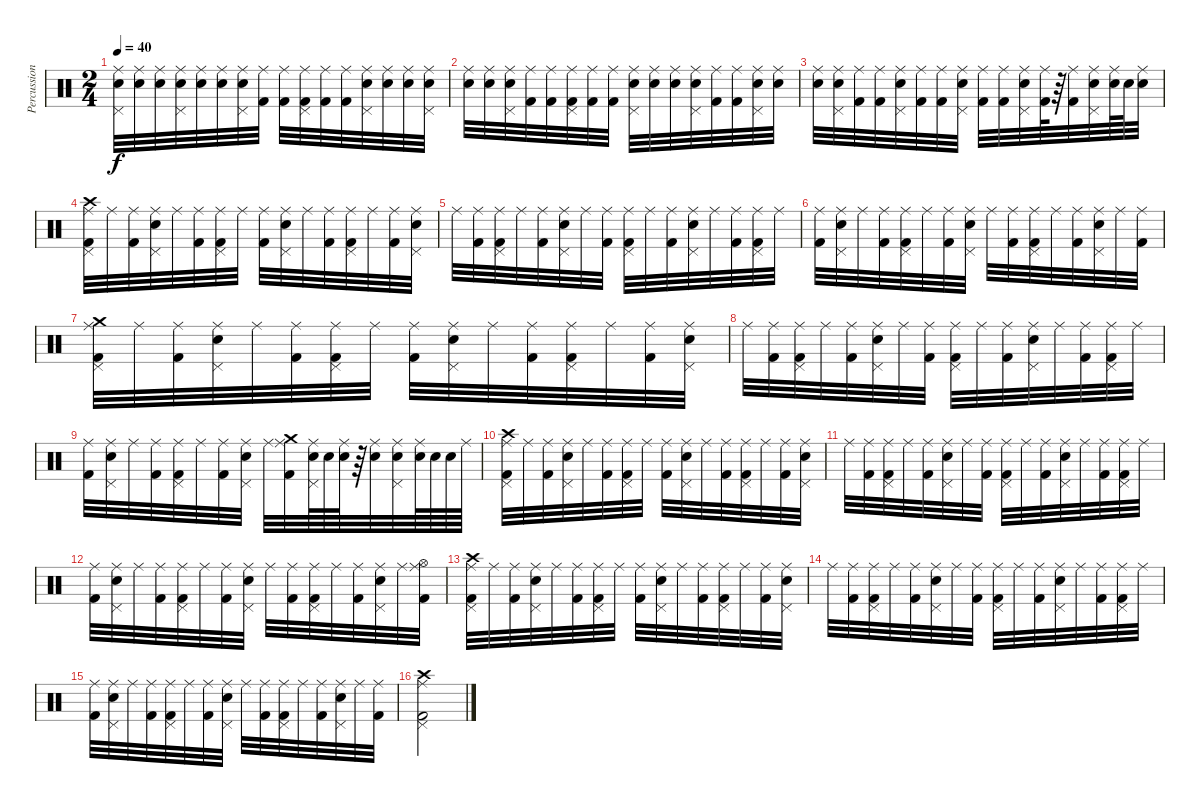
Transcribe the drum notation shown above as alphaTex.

\track ("Percussions" "Percussion") {instrument percussion}
\staff {score}
\articulation defaults
\ts (2 4)
\tempo 40
\clef neutral
\ks c
("Ride (middle)" "Pedal Hi-Hat (hit)" "Electric Snare (hit)").32{dy f} ("Ride (middle)" "Electric Snare (hit)").32 ("Ride (middle)" "Electric Snare (hit)").32 ("Ride (middle)" "Pedal Hi-Hat (hit)" "Electric Snare (hit)").32 ("Ride (middle)" "Electric Snare (hit)").32 ("Ride (middle)" "Electric Snare (hit)").32 ("Ride (middle)" "Pedal Hi-Hat (hit)" "Electric Snare (hit)").32 ("Ride (middle)" "Kick (hit) 2").32 ("Ride (middle)" "Kick (hit) 2").32 ("Ride (middle)" "Pedal Hi-Hat (hit)" "Kick (hit) 2").32 ("Ride (middle)" "Kick (hit) 2").32 ("Ride (middle)" "Kick (hit) 2").32 ("Ride (middle)" "Pedal Hi-Hat (hit)" "Electric Snare (hit)").32 ("Ride (middle)" "Electric Snare (hit)").32 ("Ride (middle)" "Electric Snare (hit)").32 ("Ride (middle)" "Pedal Hi-Hat (hit)" "Electric Snare (hit)").32 |
("Ride (middle)" "Electric Snare (hit)").32 ("Ride (middle)" "Electric Snare (hit)").32 ("Ride (middle)" "Pedal Hi-Hat (hit)" "Electric Snare (hit)").32 ("Ride (middle)" "Kick (hit) 2").32 ("Ride (middle)" "Kick (hit) 2").32 ("Ride (middle)" "Pedal Hi-Hat (hit)" "Kick (hit) 2").32 ("Ride (middle)" "Kick (hit) 2").32 ("Ride (middle)" "Kick (hit) 2").32 ("Ride (middle)" "Pedal Hi-Hat (hit)" "Electric Snare (hit)").32 ("Ride (middle)" "Electric Snare (hit)").32 ("Ride (middle)" "Electric Snare (hit)").32 ("Ride (middle)" "Pedal Hi-Hat (hit)" "Electric Snare (hit)").32 ("Ride (middle)" "Kick (hit) 2").32 ("Ride (middle)" "Kick (hit) 2").32 ("Ride (middle)" "Pedal Hi-Hat (hit)" "Electric Snare (hit)").32 ("Ride (middle)" "Electric Snare (hit)").32 |
("Ride (middle)" "Electric Snare (hit)").32 ("Ride (middle)" "Pedal Hi-Hat (hit)" "Electric Snare (hit)").32 ("Ride (middle)" "Kick (hit) 2").32 ("Ride (middle)" "Kick (hit) 2").32 ("Ride (middle)" "Pedal Hi-Hat (hit)" "Electric Snare (hit)").32 ("Ride (middle)" "Kick (hit) 2").32 ("Ride (middle)" "Kick (hit) 2").32 ("Ride (middle)" "Pedal Hi-Hat (hit)" "Electric Snare (hit)").32 ("Ride (middle)" "Kick (hit) 2").32 ("Ride (middle)" "Kick (hit) 2").32 ("Ride (middle)" "Pedal Hi-Hat (hit)" "Electric Snare (hit)").32 ("Ride (middle)" "Kick (hit) 2").64 r.64 ("Ride (middle)" "Kick (hit) 2").32 ("Ride (middle)" "Pedal Hi-Hat (hit)" "Electric Snare (hit)").32 ("Ride (middle)" "Electric Snare (hit)").64 "Electric Snare (hit)".64 ("Ride (middle)" "Electric Snare (hit)").32 |
("Ride (middle)" "Crash high (hit)" "Pedal Hi-Hat (hit)" "Kick (hit) 2").32 "Ride (middle)".32 ("Ride (middle)" "Kick (hit) 2").32 ("Ride (middle)" "Pedal Hi-Hat (hit)" "Electric Snare (hit)").32 "Ride (middle)".32 ("Ride (middle)" "Kick (hit) 2").32 ("Ride (middle)" "Pedal Hi-Hat (hit)" "Kick (hit) 2").32 "Ride (middle)".32 ("Ride (middle)" "Kick (hit) 2").32 ("Ride (middle)" "Pedal Hi-Hat (hit)" "Electric Snare (hit)").32 "Ride (middle)".32 ("Ride (middle)" "Kick (hit) 2").32 ("Ride (middle)" "Pedal Hi-Hat (hit)" "Kick (hit) 2").32 "Ride (middle)".32 ("Ride (middle)" "Kick (hit) 2").32 ("Ride (middle)" "Pedal Hi-Hat (hit)" "Electric Snare (hit)").32 |
"Ride (middle)".32 ("Ride (middle)" "Kick (hit) 2").32 ("Ride (middle)" "Pedal Hi-Hat (hit)" "Kick (hit) 2").32 "Ride (middle)".32 ("Ride (middle)" "Kick (hit) 2").32 ("Ride (middle)" "Pedal Hi-Hat (hit)" "Electric Snare (hit)").32 "Ride (middle)".32 ("Ride (middle)" "Kick (hit) 2").32 ("Ride (middle)" "Pedal Hi-Hat (hit)" "Kick (hit) 2").32 "Ride (middle)".32 ("Ride (middle)" "Kick (hit) 2").32 ("Ride (middle)" "Pedal Hi-Hat (hit)" "Electric Snare (hit)").32 "Ride (middle)".32 ("Ride (middle)" "Kick (hit) 2").32 ("Ride (middle)" "Pedal Hi-Hat (hit)" "Kick (hit) 2").32 "Ride (middle)".32 |
("Ride (middle)" "Kick (hit) 2").32 ("Ride (middle)" "Pedal Hi-Hat (hit)" "Electric Snare (hit)").32 "Ride (middle)".32 ("Ride (middle)" "Kick (hit) 2").32 ("Ride (middle)" "Pedal Hi-Hat (hit)" "Kick (hit) 2").32 "Ride (middle)".32 ("Ride (middle)" "Kick (hit) 2").32 ("Ride (middle)" "Pedal Hi-Hat (hit)" "Electric Snare (hit)").32 "Ride (middle)".32 ("Ride (middle)" "Kick (hit) 2").32 ("Ride (middle)" "Pedal Hi-Hat (hit)" "Kick (hit) 2").32 "Ride (middle)".32 ("Ride (middle)" "Kick (hit) 2").32 ("Ride (middle)" "Pedal Hi-Hat (hit)" "Electric Snare (hit)").32 "Ride (middle)".32 ("Ride (middle)" "Kick (hit) 2").32 |
("Ride (middle)" "Crash medium (hit)" "Pedal Hi-Hat (hit)" "Kick (hit) 2").32 "Ride (middle)".32 ("Ride (middle)" "Kick (hit) 2").32 ("Ride (middle)" "Pedal Hi-Hat (hit)" "Electric Snare (hit)").32 "Ride (middle)".32 ("Ride (middle)" "Kick (hit) 2").32 ("Ride (middle)" "Pedal Hi-Hat (hit)" "Kick (hit) 2").32 "Ride (middle)".32 ("Ride (middle)" "Kick (hit) 2").32 ("Ride (middle)" "Pedal Hi-Hat (hit)" "Electric Snare (hit)").32 "Ride (middle)".32 ("Ride (middle)" "Kick (hit) 2").32 ("Ride (middle)" "Pedal Hi-Hat (hit)" "Kick (hit) 2").32 "Ride (middle)".32 ("Ride (middle)" "Kick (hit) 2").32 ("Ride (middle)" "Pedal Hi-Hat (hit)" "Electric Snare (hit)").32 |
"Ride (middle)".32 ("Ride (middle)" "Kick (hit) 2").32 ("Ride (middle)" "Pedal Hi-Hat (hit)" "Kick (hit) 2").32 "Ride (middle)".32 ("Ride (middle)" "Kick (hit) 2").32 ("Ride (middle)" "Pedal Hi-Hat (hit)" "Electric Snare (hit)").32 "Ride (middle)".32 ("Ride (middle)" "Kick (hit) 2").32 ("Ride (middle)" "Pedal Hi-Hat (hit)" "Kick (hit) 2").32 "Ride (middle)".32 ("Ride (middle)" "Kick (hit) 2").32 ("Ride (middle)" "Pedal Hi-Hat (hit)" "Electric Snare (hit)").32 "Ride (middle)".32 ("Ride (middle)" "Kick (hit) 2").32 ("Ride (middle)" "Pedal Hi-Hat (hit)" "Kick (hit) 2").32 "Ride (middle)".32 |
("Ride (middle)" "Kick (hit) 2").32 ("Ride (middle)" "Pedal Hi-Hat (hit)" "Electric Snare (hit)").32 "Ride (middle)".32 ("Ride (middle)" "Kick (hit) 2").32 ("Ride (middle)" "Pedal Hi-Hat (hit)" "Kick (hit) 2").32 "Ride (middle)".32 ("Ride (middle)" "Kick (hit) 2").32 ("Ride (middle)" "Pedal Hi-Hat (hit)" "Electric Snare (hit)").32 "Ride (middle)".32 ("Ride (middle)" "Crash medium (hit)" "Kick (hit) 2").32 ("Ride (middle)" "Pedal Hi-Hat (hit)" "Electric Snare (hit)").64 "Electric Snare (hit)".64 ("Ride (middle)" "Electric Snare (hit)").64 r.64 ("Ride (middle)" "Electric Snare (hit)").32 ("Ride (middle)" "Pedal Hi-Hat (hit)" "Electric Snare (hit)").32 ("Ride (middle)" "Electric Snare (hit)").64 "Electric Snare (hit)".64 "Electric Snare (hit)".64 "Ride (middle)".64 |
("Ride (middle)" "Crash high (hit)" "Pedal Hi-Hat (hit)" "Kick (hit) 2").32 "Ride (middle)".32 ("Ride (middle)" "Kick (hit) 2").32 ("Ride (middle)" "Pedal Hi-Hat (hit)" "Electric Snare (hit)").32 "Ride (middle)".32 ("Ride (middle)" "Kick (hit) 2").32 ("Ride (middle)" "Pedal Hi-Hat (hit)" "Kick (hit) 2").32 "Ride (middle)".32 ("Ride (middle)" "Kick (hit) 2").32 ("Ride (middle)" "Pedal Hi-Hat (hit)" "Electric Snare (hit)").32 "Ride (middle)".32 ("Ride (middle)" "Kick (hit) 2").32 ("Ride (middle)" "Pedal Hi-Hat (hit)" "Kick (hit) 2").32 "Ride (middle)".32 ("Ride (middle)" "Kick (hit) 2").32 ("Ride (middle)" "Pedal Hi-Hat (hit)" "Electric Snare (hit)").32 |
"Ride (middle)".32 ("Ride (middle)" "Kick (hit) 2").32 ("Ride (middle)" "Pedal Hi-Hat (hit)" "Kick (hit) 2").32 "Ride (middle)".32 ("Ride (middle)" "Kick (hit) 2").32 ("Ride (middle)" "Pedal Hi-Hat (hit)" "Electric Snare (hit)").32 "Ride (middle)".32 ("Ride (middle)" "Kick (hit) 2").32 ("Ride (middle)" "Pedal Hi-Hat (hit)" "Kick (hit) 2").32 "Ride (middle)".32 ("Ride (middle)" "Kick (hit) 2").32 ("Ride (middle)" "Pedal Hi-Hat (hit)" "Electric Snare (hit)").32 "Ride (middle)".32 ("Ride (middle)" "Kick (hit) 2").32 ("Ride (middle)" "Pedal Hi-Hat (hit)" "Kick (hit) 2").32 "Ride (middle)".32 |
("Ride (middle)" "Kick (hit) 2").32 ("Ride (middle)" "Pedal Hi-Hat (hit)" "Electric Snare (hit)").32 "Ride (middle)".32 ("Ride (middle)" "Kick (hit) 2").32 ("Ride (middle)" "Pedal Hi-Hat (hit)" "Kick (hit) 2").32 "Ride (middle)".32 ("Ride (middle)" "Kick (hit) 2").32 ("Ride (middle)" "Pedal Hi-Hat (hit)" "Electric Snare (hit)").32 "Ride (middle)".32 ("Ride (middle)" "Kick (hit) 2").32 ("Ride (middle)" "Pedal Hi-Hat (hit)" "Kick (hit) 2").32 "Ride (middle)".32 ("Ride (middle)" "Kick (hit) 2").32 ("Ride (middle)" "Pedal Hi-Hat (hit)" "Electric Snare (hit)").32 "Ride (middle)".32 ("Ride (middle)" "Hi-Hat (open)" "Kick (hit) 2").32 |
("Ride (middle)" "Crash high (hit)" "Pedal Hi-Hat (hit)" "Kick (hit) 2").32 "Ride (middle)".32 ("Ride (middle)" "Kick (hit) 2").32 ("Ride (middle)" "Pedal Hi-Hat (hit)" "Electric Snare (hit)").32 "Ride (middle)".32 ("Ride (middle)" "Kick (hit) 2").32 ("Ride (middle)" "Pedal Hi-Hat (hit)" "Kick (hit) 2").32 "Ride (middle)".32 ("Ride (middle)" "Kick (hit) 2").32 ("Ride (middle)" "Pedal Hi-Hat (hit)" "Electric Snare (hit)").32 "Ride (middle)".32 ("Ride (middle)" "Kick (hit) 2").32 ("Ride (middle)" "Pedal Hi-Hat (hit)" "Kick (hit) 2").32 "Ride (middle)".32 ("Ride (middle)" "Kick (hit) 2").32 ("Ride (middle)" "Pedal Hi-Hat (hit)" "Electric Snare (hit)").32 |
"Ride (middle)".32 ("Ride (middle)" "Kick (hit) 2").32 ("Ride (middle)" "Pedal Hi-Hat (hit)" "Kick (hit) 2").32 "Ride (middle)".32 ("Ride (middle)" "Kick (hit) 2").32 ("Ride (middle)" "Pedal Hi-Hat (hit)" "Electric Snare (hit)").32 "Ride (middle)".32 ("Ride (middle)" "Kick (hit) 2").32 ("Ride (middle)" "Pedal Hi-Hat (hit)" "Kick (hit) 2").32 "Ride (middle)".32 ("Ride (middle)" "Kick (hit) 2").32 ("Ride (middle)" "Pedal Hi-Hat (hit)" "Electric Snare (hit)").32 "Ride (middle)".32 ("Ride (middle)" "Kick (hit) 2").32 ("Ride (middle)" "Pedal Hi-Hat (hit)" "Kick (hit) 2").32 "Ride (middle)".32 |
("Ride (middle)" "Kick (hit) 2").32 ("Ride (middle)" "Pedal Hi-Hat (hit)" "Electric Snare (hit)").32 "Ride (middle)".32 ("Ride (middle)" "Kick (hit) 2").32 ("Ride (middle)" "Pedal Hi-Hat (hit)" "Kick (hit) 2").32 "Ride (middle)".32 ("Ride (middle)" "Kick (hit) 2").32 ("Ride (middle)" "Pedal Hi-Hat (hit)" "Electric Snare (hit)").32 "Ride (middle)".32 ("Ride (middle)" "Kick (hit) 2").32 ("Ride (middle)" "Pedal Hi-Hat (hit)" "Kick (hit) 2").32 "Ride (middle)".32 ("Ride (middle)" "Kick (hit) 2").32 ("Ride (middle)" "Pedal Hi-Hat (hit)" "Electric Snare (hit)").32 "Ride (middle)".32 ("Ride (middle)" "Kick (hit) 2").32 |
("Ride (middle)" "Crash high (hit)" "Pedal Hi-Hat (hit)" "Kick (hit) 2").2
